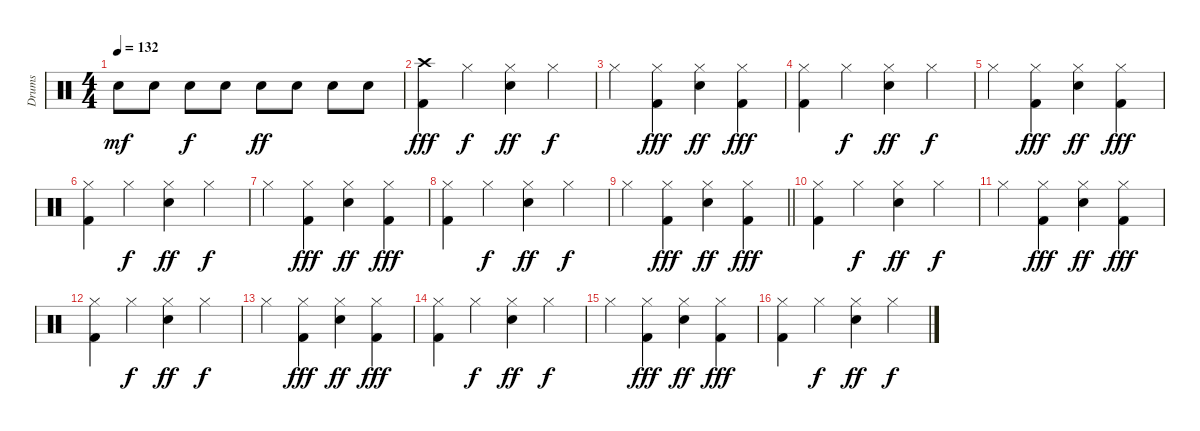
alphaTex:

\track ("Drums" "Drums") {instrument percussion}
\staff {score}
\articulation defaults
\ts (4 4)
\tempo 132
\clef neutral
\ks c "Electric Snare (hit)".8{dy mf} "Electric Snare (hit)".8 "Electric Snare (hit)".8{dy f} "Electric Snare (hit)".8 "Electric Snare (hit)".8{dy ff} "Electric Snare (hit)".8 "Electric Snare (hit)".8 "Electric Snare (hit)".8
|
("Crash high (hit)" "Kick (hit) 2").4{dy fff} "Hi-Hat (closed)".4{dy f} ("Hi-Hat (closed)" "Electric Snare (hit)").4{dy ff} "Hi-Hat (closed)".4{dy f} |
"Hi-Hat (closed)".4 ("Hi-Hat (closed)" "Kick (hit) 2").4{dy fff} ("Hi-Hat (closed)" "Electric Snare (hit)").4{dy ff} ("Hi-Hat (closed)" "Kick (hit) 2").4{dy fff} |
("Hi-Hat (closed)" "Kick (hit) 2").4 "Hi-Hat (closed)".4{dy f} ("Hi-Hat (closed)" "Electric Snare (hit)").4{dy ff} "Hi-Hat (closed)".4{dy f} |
"Hi-Hat (closed)".4 ("Hi-Hat (closed)" "Kick (hit) 2").4{dy fff} ("Hi-Hat (closed)" "Electric Snare (hit)").4{dy ff} ("Hi-Hat (closed)" "Kick (hit) 2").4{dy fff} |
("Hi-Hat (closed)" "Kick (hit) 2").4 "Hi-Hat (closed)".4{dy f} ("Hi-Hat (closed)" "Electric Snare (hit)").4{dy ff} "Hi-Hat (closed)".4{dy f} |
"Hi-Hat (closed)".4 ("Hi-Hat (closed)" "Kick (hit) 2").4{dy fff} ("Hi-Hat (closed)" "Electric Snare (hit)").4{dy ff} ("Hi-Hat (closed)" "Kick (hit) 2").4{dy fff} |
("Hi-Hat (closed)" "Kick (hit) 2").4 "Hi-Hat (closed)".4{dy f} ("Hi-Hat (closed)" "Electric Snare (hit)").4{dy ff} "Hi-Hat (closed)".4{dy f} |
\barLineRight lightlight "Hi-Hat (closed)".4
("Hi-Hat (closed)" "Kick (hit) 2").4{dy fff} ("Hi-Hat (closed)" "Electric Snare (hit)").4{dy ff} ("Hi-Hat (closed)" "Kick (hit) 2").4{dy fff} |
("Hi-Hat (closed)" "Kick (hit) 2").4 "Hi-Hat (closed)".4{dy f} ("Hi-Hat (closed)" "Electric Snare (hit)").4{dy ff} "Hi-Hat (closed)".4{dy f} |
"Hi-Hat (closed)".4 ("Hi-Hat (closed)" "Kick (hit) 2").4{dy fff} ("Hi-Hat (closed)" "Electric Snare (hit)").4{dy ff} ("Hi-Hat (closed)" "Kick (hit) 2").4{dy fff} |
("Hi-Hat (closed)" "Kick (hit) 2").4 "Hi-Hat (closed)".4{dy f} ("Hi-Hat (closed)" "Electric Snare (hit)").4{dy ff} "Hi-Hat (closed)".4{dy f} |
"Hi-Hat (closed)".4 ("Hi-Hat (closed)" "Kick (hit) 2").4{dy fff} ("Hi-Hat (closed)" "Electric Snare (hit)").4{dy ff} ("Hi-Hat (closed)" "Kick (hit) 2").4{dy fff} |
("Hi-Hat (closed)" "Kick (hit) 2").4 "Hi-Hat (closed)".4{dy f} ("Hi-Hat (closed)" "Electric Snare (hit)").4{dy ff} "Hi-Hat (closed)".4{dy f} |
"Hi-Hat (closed)".4 ("Hi-Hat (closed)" "Kick (hit) 2").4{dy fff} ("Hi-Hat (closed)" "Electric Snare (hit)").4{dy ff} ("Hi-Hat (closed)" "Kick (hit) 2").4{dy fff} |
("Hi-Hat (closed)" "Kick (hit) 2").4 "Hi-Hat (closed)".4{dy f} ("Hi-Hat (closed)" "Electric Snare (hit)").4{dy ff} "Hi-Hat (closed)".4{dy f}
